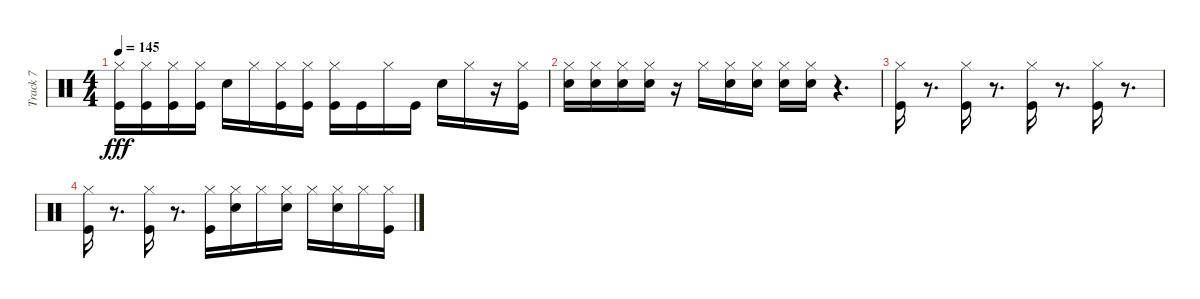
\track ("Track 7" "Track 7") {instrument percussion}
\staff {score}
\articulation defaults
\ts (4 4)
\tempo 145
\clef neutral
\ks c
("Kick (hit)" "Hi-Hat (closed)").16{dy fff} ("Kick (hit)" "Hi-Hat (closed)").16 ("Kick (hit)" "Hi-Hat (closed)").16 ("Kick (hit)" "Hi-Hat (closed)").16 "Snare (hit) 2".16 "Hi-Hat (closed)".16 ("Kick (hit)" "Hi-Hat (closed)").16 ("Kick (hit)" "Hi-Hat (closed)").16 ("Kick (hit)" "Hi-Hat (closed)").16 "Kick (hit)".16 "Hi-Hat (closed)".16 "Kick (hit)".16 "Snare (hit) 2".16 "Hi-Hat (closed)".16 r.16 ("Kick (hit)" "Hi-Hat (closed)").16 |
("Snare (hit) 2" "Hi-Hat (closed)").16 ("Snare (hit) 2" "Hi-Hat (closed)").16 ("Snare (hit) 2" "Hi-Hat (closed)").16 ("Snare (hit) 2" "Hi-Hat (closed)").16 r.16 "Hi-Hat (closed)".16 ("Snare (hit) 2" "Hi-Hat (closed)").16 ("Snare (hit) 2" "Hi-Hat (closed)").16 ("Snare (hit) 2" "Hi-Hat (closed)").16 ("Snare (hit) 2" "Hi-Hat (closed)").16 r.4{d} |
("Kick (hit)" "Hi-Hat (closed)").16 r.8{d} ("Kick (hit)" "Hi-Hat (closed)").16 r.8{d} ("Kick (hit)" "Hi-Hat (closed)").16 r.8{d} ("Kick (hit)" "Hi-Hat (closed)").16 r.8{d} |
("Kick (hit)" "Hi-Hat (closed)").16 r.8{d} ("Kick (hit)" "Hi-Hat (closed)").16 r.8{d} ("Kick (hit)" "Hi-Hat (closed)").16 ("Snare (hit) 2" "Hi-Hat (closed)").16 "Hi-Hat (closed)".16 ("Snare (hit) 2" "Hi-Hat (closed)").16 "Hi-Hat (closed)".16 ("Snare (hit) 2" "Hi-Hat (closed)").16 "Hi-Hat (closed)".16 ("Kick (hit)" "Hi-Hat (closed)").16
